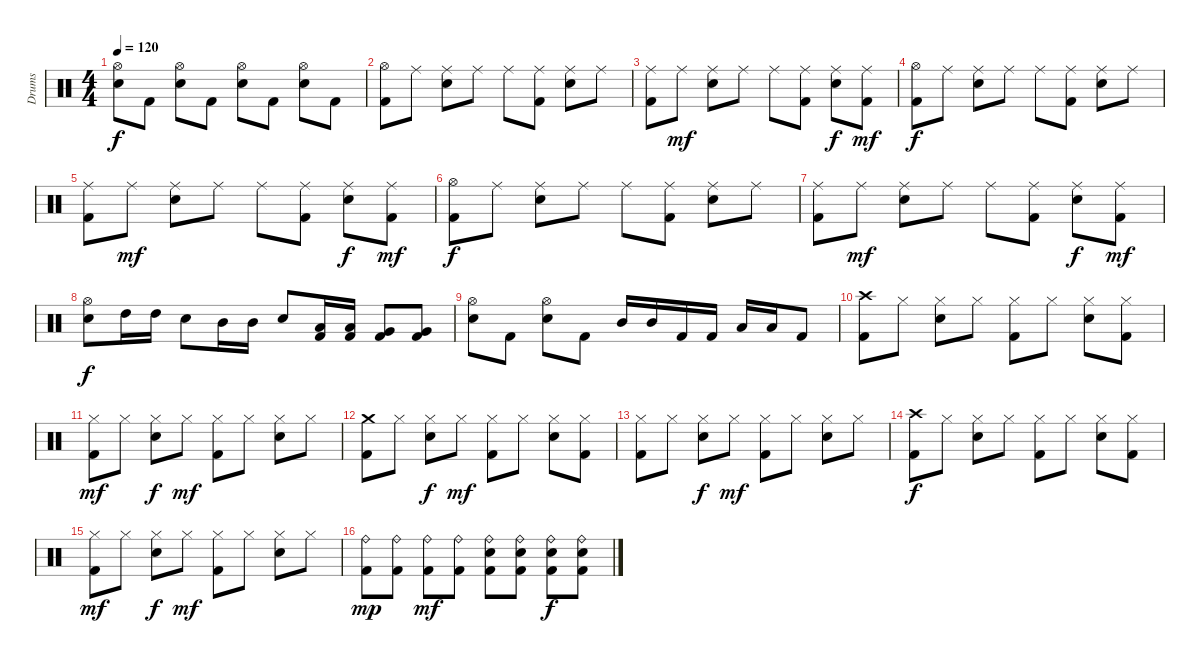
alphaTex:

\track ("Drums" "Drums") {instrument percussion}
\staff {score}
\articulation defaults
\ts (4 4)
\tempo 120
\clef neutral
\ks c
("Hi-Hat (open)" "Snare (hit) 2").8{dy f} "Kick (hit) 2".8 ("Hi-Hat (open)" "Snare (hit) 2").8 "Kick (hit) 2".8 ("Hi-Hat (open)" "Snare (hit) 2").8 "Kick (hit) 2".8 ("Hi-Hat (open)" "Snare (hit) 2").8 "Kick (hit) 2".8 |
("Hi-Hat (open)" "Kick (hit) 2").8 "Ride (middle)".8 ("Ride (middle)" "Snare (hit) 2").8 "Ride (middle)".8 "Ride (middle)".8 ("Ride (middle)" "Kick (hit) 2").8 ("Ride (middle)" "Snare (hit) 2").8 "Ride (middle)".8 |
("Ride (middle)" "Kick (hit) 2").8 "Ride (middle)".8{dy mf} ("Ride (middle)" "Snare (hit) 2").8 "Ride (middle)".8 "Ride (middle)".8 ("Ride (middle)" "Kick (hit) 2").8 ("Ride (middle)" "Snare (hit) 2").8{dy f} ("Ride (middle)" "Kick (hit) 2").8{dy mf} |
("Hi-Hat (open)" "Kick (hit) 2").8{dy f} "Ride (middle)".8 ("Ride (middle)" "Snare (hit) 2").8 "Ride (middle)".8 "Ride (middle)".8 ("Ride (middle)" "Kick (hit) 2").8 ("Ride (middle)" "Snare (hit) 2").8 "Ride (middle)".8 |
("Ride (middle)" "Kick (hit) 2").8 "Ride (middle)".8{dy mf} ("Ride (middle)" "Snare (hit) 2").8 "Ride (middle)".8 "Ride (middle)".8 ("Ride (middle)" "Kick (hit) 2").8 ("Ride (middle)" "Snare (hit) 2").8{dy f} ("Ride (middle)" "Kick (hit) 2").8{dy mf} |
("Hi-Hat (open)" "Kick (hit) 2").8{dy f} "Ride (middle)".8 ("Ride (middle)" "Snare (hit) 2").8 "Ride (middle)".8 "Ride (middle)".8 ("Ride (middle)" "Kick (hit) 2").8 ("Ride (middle)" "Snare (hit) 2").8 "Ride (middle)".8 |
("Ride (middle)" "Kick (hit) 2").8 "Ride (middle)".8{dy mf} ("Ride (middle)" "Snare (hit) 2").8 "Ride (middle)".8 "Ride (middle)".8 ("Ride (middle)" "Kick (hit) 2").8 ("Ride (middle)" "Snare (hit) 2").8{dy f} ("Ride (middle)" "Kick (hit) 2").8{dy mf} |
("Snare (hit) 2" "Hi-Hat (open)").8{dy f} "High Tom (hit)".16 "High Tom (hit)".16 "Snare (hit) 2".8 "Mid Tom (hit)".16 "Mid Tom (hit)".16 "Snare (hit) 2".8 ("Low Tom (hit)" "Kick (hit) 2").16 ("Low Tom (hit)" "Kick (hit) 2").16 ("Very Low Tom (hit)" "Kick (hit) 2").8 ("Very Low Tom (hit)" "Kick (hit) 2").8 |
("Hi-Hat (open)" "Snare (hit) 2").8 "Kick (hit) 2".8 ("Hi-Hat (open)" "Snare (hit) 2").8 "Kick (hit) 2".8 "Mid Tom (hit)".16 "Mid Tom (hit)".16 "Kick (hit) 2".16 "Kick (hit) 2".16 "Low Tom (hit)".16 "Low Tom (hit)".16 "Kick (hit) 2".8 |
("Crash high (hit)" "Kick (hit) 2").8 "Hi-Hat (closed)".8 ("Hi-Hat (closed)" "Snare (hit) 2").8 "Hi-Hat (closed)".8 ("Hi-Hat (closed)" "Kick (hit) 2").8 "Hi-Hat (closed)".8 ("Hi-Hat (closed)" "Snare (hit) 2").8 ("Hi-Hat (closed)" "Kick (hit) 2").8 |
("Hi-Hat (closed)" "Kick (hit) 2").8{dy mf} "Hi-Hat (closed)".8 ("Hi-Hat (closed)" "Snare (hit) 2").8{dy f} "Hi-Hat (closed)".8{dy mf} ("Hi-Hat (closed)" "Kick (hit) 2").8 "Hi-Hat (closed)".8 ("Hi-Hat (closed)" "Snare (hit) 2").8 "Hi-Hat (closed)".8 |
("Crash medium (hit)" "Kick (hit) 2").8 "Hi-Hat (closed)".8 ("Hi-Hat (closed)" "Snare (hit) 2").8{dy f} "Hi-Hat (closed)".8{dy mf} ("Hi-Hat (closed)" "Kick (hit) 2").8 "Hi-Hat (closed)".8 ("Hi-Hat (closed)" "Snare (hit) 2").8 ("Hi-Hat (closed)" "Kick (hit) 2").8 |
("Hi-Hat (closed)" "Kick (hit) 2").8 "Hi-Hat (closed)".8 ("Hi-Hat (closed)" "Snare (hit) 2").8{dy f} "Hi-Hat (closed)".8{dy mf} ("Hi-Hat (closed)" "Kick (hit) 2").8 "Hi-Hat (closed)".8 ("Hi-Hat (closed)" "Snare (hit) 2").8 "Hi-Hat (closed)".8 |
("Crash high (hit)" "Kick (hit) 2").8{dy f} "Hi-Hat (closed)".8 ("Hi-Hat (closed)" "Snare (hit) 2").8 "Hi-Hat (closed)".8 ("Hi-Hat (closed)" "Kick (hit) 2").8 "Hi-Hat (closed)".8 ("Hi-Hat (closed)" "Snare (hit) 2").8 ("Hi-Hat (closed)" "Kick (hit) 2").8 |
("Hi-Hat (closed)" "Kick (hit) 2").8{dy mf} "Hi-Hat (closed)".8 ("Hi-Hat (closed)" "Snare (hit) 2").8{dy f} "Hi-Hat (closed)".8{dy mf} ("Hi-Hat (closed)" "Kick (hit) 2").8 "Hi-Hat (closed)".8 ("Hi-Hat (closed)" "Snare (hit) 2").8 "Hi-Hat (closed)".8 |
("Ride (bell)" "Kick (hit) 2").8{dy mp} ("Ride (bell)" "Kick (hit) 2").8 ("Ride (bell)" "Kick (hit) 2").8{dy mf} ("Ride (bell)" "Kick (hit) 2").8 ("Ride (bell)" "Snare (hit) 2" "Kick (hit) 2").8 ("Ride (bell)" "Snare (hit) 2" "Kick (hit) 2").8 ("Ride (bell)" "Snare (hit) 2" "Kick (hit) 2").8{dy f} ("Ride (bell)" "Snare (hit) 2" "Kick (hit) 2").8
